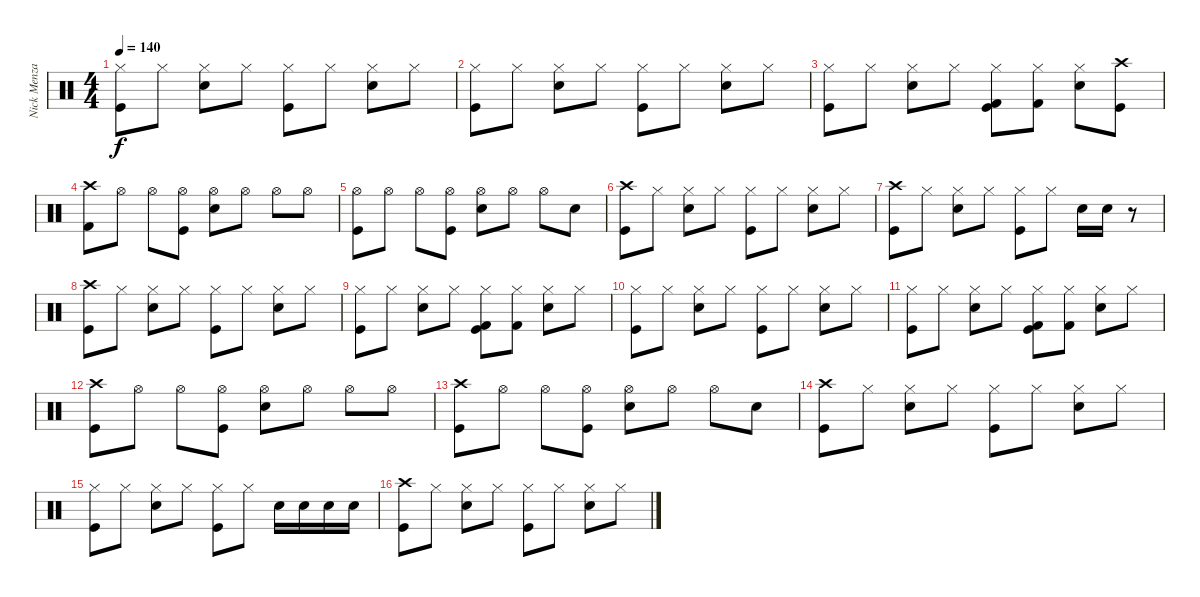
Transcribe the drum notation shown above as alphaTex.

\track ("Nick Menza (Drums)" "Nick Menza") {instrument percussion}
\staff {score}
\articulation defaults
\ts (4 4)
\tempo 140
\clef neutral
\ks c
("Hi-Hat (closed)" "Kick (hit)").8{dy f} "Hi-Hat (closed)".8 ("Hi-Hat (closed)" "Snare (hit) 2").8 "Hi-Hat (closed)".8 ("Hi-Hat (closed)" "Kick (hit)").8 "Hi-Hat (closed)".8 ("Hi-Hat (closed)" "Snare (hit) 2").8 "Hi-Hat (closed)".8 |
("Hi-Hat (closed)" "Kick (hit)").8 "Hi-Hat (closed)".8 ("Hi-Hat (closed)" "Snare (hit) 2").8 "Hi-Hat (closed)".8 ("Hi-Hat (closed)" "Kick (hit)").8 "Hi-Hat (closed)".8 ("Hi-Hat (closed)" "Snare (hit) 2").8 "Hi-Hat (closed)".8 |
("Hi-Hat (closed)" "Kick (hit)").8 "Hi-Hat (closed)".8 ("Hi-Hat (closed)" "Snare (hit) 2").8 "Hi-Hat (closed)".8 ("Hi-Hat (closed)" "Kick (hit) 2" "Kick (hit)").8 ("Hi-Hat (closed)" "Kick (hit) 2").8 ("Hi-Hat (closed)" "Snare (hit) 2").8 ("Crash high (hit)" "Kick (hit)").8 |
("Kick (hit) 2" "Crash high (hit)").8 "Hi-Hat (open)".8 "Hi-Hat (open)".8 ("Hi-Hat (open)" "Kick (hit)").8 ("Hi-Hat (open)" "Snare (hit) 2").8 "Hi-Hat (open)".8 "Hi-Hat (open)".8 "Hi-Hat (open)".8 |
("Hi-Hat (open)" "Kick (hit)").8 "Hi-Hat (open)".8 "Hi-Hat (open)".8 ("Hi-Hat (open)" "Kick (hit)").8 ("Hi-Hat (open)" "Snare (hit) 2").8 "Hi-Hat (open)".8 "Hi-Hat (open)".8 "Snare (hit) 2".8 |
("Crash high (hit)" "Kick (hit)").8 "Hi-Hat (closed)".8 ("Hi-Hat (closed)" "Snare (hit) 2").8 "Hi-Hat (closed)".8 ("Hi-Hat (closed)" "Kick (hit)").8 "Hi-Hat (closed)".8 ("Hi-Hat (closed)" "Snare (hit) 2").8 "Hi-Hat (closed)".8 |
("Crash high (hit)" "Kick (hit)").8 "Hi-Hat (closed)".8 ("Hi-Hat (closed)" "Snare (hit) 2").8 "Hi-Hat (closed)".8 ("Hi-Hat (closed)" "Kick (hit)").8 "Hi-Hat (closed)".8 "Snare (hit) 2".16 "Snare (hit) 2".16 r.8 |
("Crash high (hit)" "Kick (hit)").8 "Hi-Hat (closed)".8 ("Hi-Hat (closed)" "Snare (hit) 2").8 "Hi-Hat (closed)".8 ("Hi-Hat (closed)" "Kick (hit)").8 "Hi-Hat (closed)".8 ("Hi-Hat (closed)" "Snare (hit) 2").8 "Hi-Hat (closed)".8 |
("Hi-Hat (closed)" "Kick (hit)").8 "Hi-Hat (closed)".8 ("Hi-Hat (closed)" "Snare (hit) 2").8 "Hi-Hat (closed)".8 ("Hi-Hat (closed)" "Kick (hit) 2" "Kick (hit)").8 ("Hi-Hat (closed)" "Kick (hit) 2").8 ("Hi-Hat (closed)" "Snare (hit) 2").8 "Hi-Hat (closed)".8 |
("Hi-Hat (closed)" "Kick (hit)").8 "Hi-Hat (closed)".8 ("Hi-Hat (closed)" "Snare (hit) 2").8 "Hi-Hat (closed)".8 ("Hi-Hat (closed)" "Kick (hit)").8 "Hi-Hat (closed)".8 ("Hi-Hat (closed)" "Snare (hit) 2").8 "Hi-Hat (closed)".8 |
("Hi-Hat (closed)" "Kick (hit)").8 "Hi-Hat (closed)".8 ("Hi-Hat (closed)" "Snare (hit) 2").8 "Hi-Hat (closed)".8 ("Hi-Hat (closed)" "Kick (hit) 2" "Kick (hit)").8 ("Hi-Hat (closed)" "Kick (hit) 2").8 ("Hi-Hat (closed)" "Snare (hit) 2").8 "Hi-Hat (closed)".8 |
("Crash high (hit)" "Kick (hit)").8 "Hi-Hat (open)".8 "Hi-Hat (open)".8 ("Hi-Hat (open)" "Kick (hit)").8 ("Hi-Hat (open)" "Snare (hit) 2").8 "Hi-Hat (open)".8 "Hi-Hat (open)".8 "Hi-Hat (open)".8 |
("Crash high (hit)" "Kick (hit)").8 "Hi-Hat (open)".8 "Hi-Hat (open)".8 ("Hi-Hat (open)" "Kick (hit)").8 ("Hi-Hat (open)" "Snare (hit) 2").8 "Hi-Hat (open)".8 "Hi-Hat (open)".8 "Snare (hit) 2".8 |
("Crash high (hit)" "Kick (hit)").8 "Hi-Hat (closed)".8 ("Hi-Hat (closed)" "Snare (hit) 2").8 "Hi-Hat (closed)".8 ("Hi-Hat (closed)" "Kick (hit)").8 "Hi-Hat (closed)".8 ("Hi-Hat (closed)" "Snare (hit) 2").8 "Hi-Hat (closed)".8 |
("Hi-Hat (closed)" "Kick (hit)").8 "Hi-Hat (closed)".8 ("Hi-Hat (closed)" "Snare (hit) 2").8 "Hi-Hat (closed)".8 ("Hi-Hat (closed)" "Kick (hit)").8 "Hi-Hat (closed)".8 "Electric Snare (hit)".16 "Electric Snare (hit)".16 "Electric Snare (hit)".16 "Electric Snare (hit)".16 |
("Crash high (hit)" "Kick (hit)").8 "Hi-Hat (closed)".8 ("Hi-Hat (closed)" "Snare (hit) 2").8 "Hi-Hat (closed)".8 ("Hi-Hat (closed)" "Kick (hit)").8 "Hi-Hat (closed)".8 ("Hi-Hat (closed)" "Snare (hit) 2").8 "Hi-Hat (closed)".8
